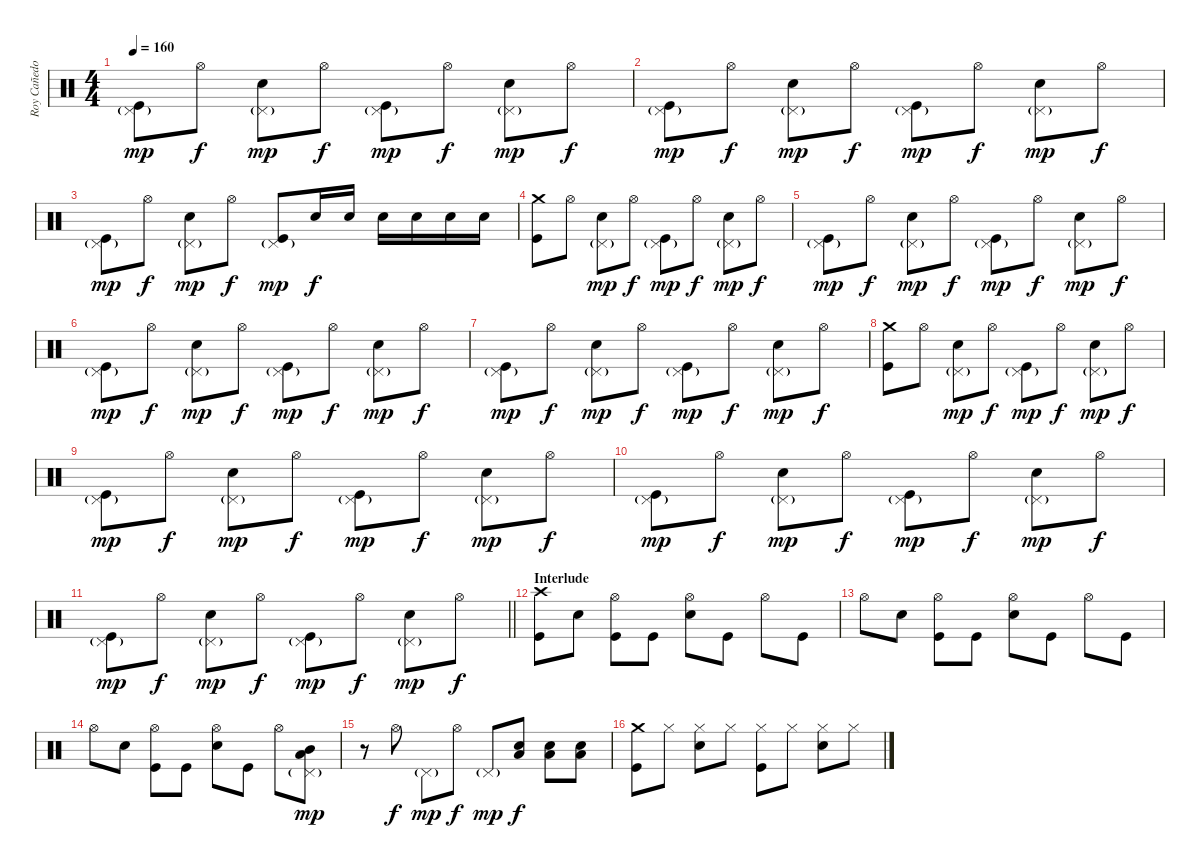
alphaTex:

\track ("Roy Cañedo" "Roy Cañedo") {instrument percussion}
\staff {score}
\articulation defaults
\ts (4 4)
\tempo 160
\clef neutral
\ks c
("Pedal Hi-Hat (hit)"{g} "Kick (hit)").8{dy mp} "Hi-Hat (open)".8{dy f} ("Pedal Hi-Hat (hit)"{g} "Snare (hit) 2").8{dy mp} "Hi-Hat (open)".8{dy f} ("Pedal Hi-Hat (hit)"{g} "Kick (hit)").8{dy mp} "Hi-Hat (open)".8{dy f} ("Pedal Hi-Hat (hit)"{g} "Snare (hit) 2").8{dy mp} "Hi-Hat (open)".8{dy f} |
("Pedal Hi-Hat (hit)"{g} "Kick (hit)").8{dy mp} "Hi-Hat (open)".8{dy f} ("Pedal Hi-Hat (hit)"{g} "Snare (hit) 2").8{dy mp} "Hi-Hat (open)".8{dy f} ("Pedal Hi-Hat (hit)"{g} "Kick (hit)").8{dy mp} "Hi-Hat (open)".8{dy f} ("Pedal Hi-Hat (hit)"{g} "Snare (hit) 2").8{dy mp} "Hi-Hat (open)".8{dy f} |
("Pedal Hi-Hat (hit)"{g} "Kick (hit)").8{dy mp} "Hi-Hat (open)".8{dy f} ("Pedal Hi-Hat (hit)"{g} "Snare (hit) 2").8{dy mp} "Hi-Hat (open)".8{dy f} ("Pedal Hi-Hat (hit)"{g} "Kick (hit)").8{dy mp} "Snare (hit) 2".16{dy f} "Snare (hit) 2".16 "Snare (hit) 2".16 "Snare (hit) 2".16 "Snare (hit) 2".16 "Snare (hit) 2".16 |
("Crash medium (hit)" "Kick (hit)").8 "Hi-Hat (open)".8 ("Pedal Hi-Hat (hit)"{g} "Snare (hit) 2").8{dy mp} "Hi-Hat (open)".8{dy f} ("Pedal Hi-Hat (hit)"{g} "Kick (hit)").8{dy mp} "Hi-Hat (open)".8{dy f} ("Pedal Hi-Hat (hit)"{g} "Snare (hit) 2").8{dy mp} "Hi-Hat (open)".8{dy f} |
("Pedal Hi-Hat (hit)"{g} "Kick (hit)").8{dy mp} "Hi-Hat (open)".8{dy f} ("Pedal Hi-Hat (hit)"{g} "Snare (hit) 2").8{dy mp} "Hi-Hat (open)".8{dy f} ("Pedal Hi-Hat (hit)"{g} "Kick (hit)").8{dy mp} "Hi-Hat (open)".8{dy f} ("Pedal Hi-Hat (hit)"{g} "Snare (hit) 2").8{dy mp} "Hi-Hat (open)".8{dy f} |
("Pedal Hi-Hat (hit)"{g} "Kick (hit)").8{dy mp} "Hi-Hat (open)".8{dy f} ("Pedal Hi-Hat (hit)"{g} "Snare (hit) 2").8{dy mp} "Hi-Hat (open)".8{dy f} ("Pedal Hi-Hat (hit)"{g} "Kick (hit)").8{dy mp} "Hi-Hat (open)".8{dy f} ("Pedal Hi-Hat (hit)"{g} "Snare (hit) 2").8{dy mp} "Hi-Hat (open)".8{dy f} |
("Pedal Hi-Hat (hit)"{g} "Kick (hit)").8{dy mp} "Hi-Hat (open)".8{dy f} ("Pedal Hi-Hat (hit)"{g} "Snare (hit) 2").8{dy mp} "Hi-Hat (open)".8{dy f} ("Pedal Hi-Hat (hit)"{g} "Kick (hit)").8{dy mp} "Hi-Hat (open)".8{dy f} ("Pedal Hi-Hat (hit)"{g} "Snare (hit) 2").8{dy mp} "Hi-Hat (open)".8{dy f} |
("Crash medium (hit)" "Kick (hit)").8 "Hi-Hat (open)".8 ("Pedal Hi-Hat (hit)"{g} "Snare (hit) 2").8{dy mp} "Hi-Hat (open)".8{dy f} ("Pedal Hi-Hat (hit)"{g} "Kick (hit)").8{dy mp} "Hi-Hat (open)".8{dy f} ("Pedal Hi-Hat (hit)"{g} "Snare (hit) 2").8{dy mp} "Hi-Hat (open)".8{dy f} |
("Pedal Hi-Hat (hit)"{g} "Kick (hit)").8{dy mp} "Hi-Hat (open)".8{dy f} ("Pedal Hi-Hat (hit)"{g} "Snare (hit) 2").8{dy mp} "Hi-Hat (open)".8{dy f} ("Pedal Hi-Hat (hit)"{g} "Kick (hit)").8{dy mp} "Hi-Hat (open)".8{dy f} ("Pedal Hi-Hat (hit)"{g} "Snare (hit) 2").8{dy mp} "Hi-Hat (open)".8{dy f} |
("Pedal Hi-Hat (hit)"{g} "Kick (hit)").8{dy mp} "Hi-Hat (open)".8{dy f} ("Pedal Hi-Hat (hit)"{g} "Snare (hit) 2").8{dy mp} "Hi-Hat (open)".8{dy f} ("Pedal Hi-Hat (hit)"{g} "Kick (hit)").8{dy mp} "Hi-Hat (open)".8{dy f} ("Pedal Hi-Hat (hit)"{g} "Snare (hit) 2").8{dy mp} "Hi-Hat (open)".8{dy f} |
\barLineRight lightlight
("Pedal Hi-Hat (hit)"{g} "Kick (hit)").8{dy mp} "Hi-Hat (open)".8{dy f} ("Pedal Hi-Hat (hit)"{g} "Snare (hit) 2").8{dy mp} "Hi-Hat (open)".8{dy f} ("Pedal Hi-Hat (hit)"{g} "Kick (hit)").8{dy mp} "Hi-Hat (open)".8{dy f} ("Pedal Hi-Hat (hit)"{g} "Snare (hit) 2").8{dy mp} "Hi-Hat (open)".8{dy f} |
\section ("" "Interlude")
("Crash high (hit)" "Kick (hit)").8 "Snare (hit) 2".8 ("Hi-Hat (open)" "Kick (hit)").8 "Kick (hit)".8 ("Hi-Hat (open)" "Snare (hit) 2").8 "Kick (hit)".8 "Hi-Hat (open)".8 "Kick (hit)".8 |
"Hi-Hat (open)".8 "Snare (hit) 2".8 ("Hi-Hat (open)" "Kick (hit)").8 "Kick (hit)".8 ("Hi-Hat (open)" "Snare (hit) 2").8 "Kick (hit)".8 "Hi-Hat (open)".8 "Kick (hit)".8 |
"Hi-Hat (open)".8 "Snare (hit) 2".8 ("Hi-Hat (open)" "Kick (hit)").8 "Kick (hit)".8 ("Hi-Hat (open)" "Snare (hit) 2").8 "Kick (hit)".8 "Hi-Hat (open)".8 ("Pedal Hi-Hat (hit)"{g} "Low Tom (hit)" "Mid Tom (hit)").8{dy mp} |
r.8 "Hi-Hat (open)".8{dy f} "Pedal Hi-Hat (hit)"{g}.8{dy mp} "Hi-Hat (open)".8{dy f} "Pedal Hi-Hat (hit)"{g}.8{dy mp} ("Low Tom (hit)" "Snare (hit) 2").8{dy f} ("Low Tom (hit)" "Snare (hit) 2").8 ("Low Tom (hit)" "Snare (hit) 2").8 |
("Crash medium (hit)" "Kick (hit)").8 "Hi-Hat (closed)".8 ("Hi-Hat (closed)" "Snare (hit) 2").8 "Hi-Hat (closed)".8 ("Hi-Hat (closed)" "Kick (hit)").8 "Hi-Hat (closed)".8 ("Hi-Hat (closed)" "Snare (hit) 2").8 "Hi-Hat (closed)".8
